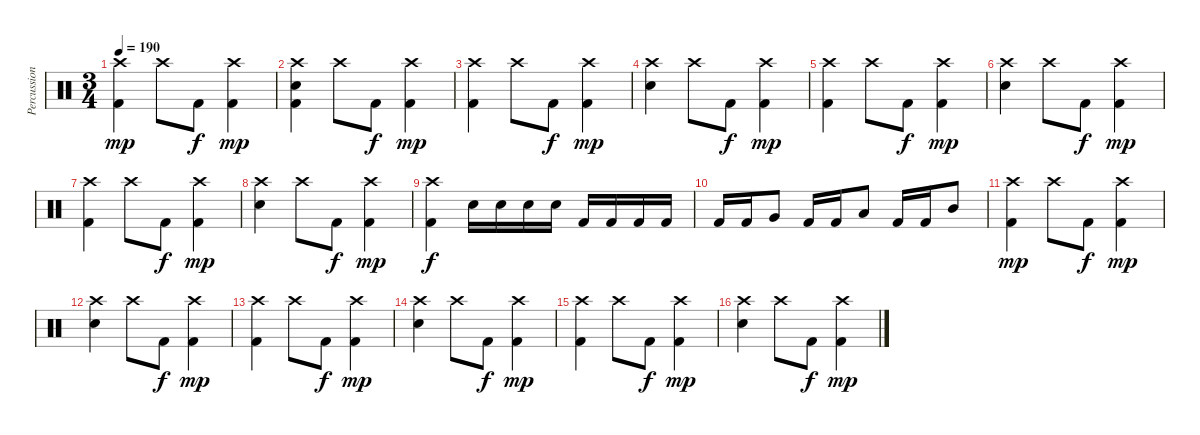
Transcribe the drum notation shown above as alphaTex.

\track ("Percussion" "Percussion") {instrument percussion}
\staff {score}
\articulation defaults
\ts (3 4)
\tempo 190
\clef neutral
\ks c
("Crash high (hit)" "Kick (hit) 2").4{dy mp} "Crash high (hit)".8 "Kick (hit) 2".8{dy f} ("Crash high (hit)" "Kick (hit) 2").4{dy mp} |
("Crash high (hit)" "Electric Snare (hit)" "Kick (hit) 2").4 "Crash high (hit)".8 "Kick (hit) 2".8{dy f} ("Crash high (hit)" "Kick (hit) 2").4{dy mp} |
("Crash high (hit)" "Kick (hit) 2").4 "Crash high (hit)".8 "Kick (hit) 2".8{dy f} ("Crash high (hit)" "Kick (hit) 2").4{dy mp} |
("Crash high (hit)" "Electric Snare (hit)").4 "Crash high (hit)".8 "Kick (hit) 2".8{dy f} ("Crash high (hit)" "Kick (hit) 2").4{dy mp} |
("Crash high (hit)" "Kick (hit) 2").4 "Crash high (hit)".8 "Kick (hit) 2".8{dy f} ("Crash high (hit)" "Kick (hit) 2").4{dy mp} |
("Crash high (hit)" "Electric Snare (hit)").4 "Crash high (hit)".8 "Kick (hit) 2".8{dy f} ("Crash high (hit)" "Kick (hit) 2").4{dy mp} |
("Crash high (hit)" "Kick (hit) 2").4 "Crash high (hit)".8 "Kick (hit) 2".8{dy f} ("Crash high (hit)" "Kick (hit) 2").4{dy mp} |
("Crash high (hit)" "Electric Snare (hit)").4 "Crash high (hit)".8 "Kick (hit) 2".8{dy f} ("Crash high (hit)" "Kick (hit) 2").4{dy mp} |
("Crash high (hit)" "Kick (hit) 2").4{dy f} "Electric Snare (hit)".16 "Electric Snare (hit)".16 "Electric Snare (hit)".16 "Electric Snare (hit)".16 "Kick (hit) 2".16 "Kick (hit) 2".16 "Kick (hit) 2".16 "Kick (hit) 2".16 |
"Kick (hit) 2".16 "Kick (hit) 2".16 "Very Low Tom (hit)".8 "Kick (hit) 2".16 "Kick (hit) 2".16 "Low Tom (hit)".8 "Kick (hit) 2".16 "Kick (hit) 2".16 "Mid Tom (hit)".8 |
("Crash high (hit)" "Kick (hit) 2").4{dy mp} "Crash high (hit)".8 "Kick (hit) 2".8{dy f} ("Crash high (hit)" "Kick (hit) 2").4{dy mp} |
("Crash high (hit)" "Electric Snare (hit)").4 "Crash high (hit)".8 "Kick (hit) 2".8{dy f} ("Crash high (hit)" "Kick (hit) 2").4{dy mp} |
("Crash high (hit)" "Kick (hit) 2").4 "Crash high (hit)".8 "Kick (hit) 2".8{dy f} ("Crash high (hit)" "Kick (hit) 2").4{dy mp} |
("Crash high (hit)" "Electric Snare (hit)").4 "Crash high (hit)".8 "Kick (hit) 2".8{dy f} ("Crash high (hit)" "Kick (hit) 2").4{dy mp} |
("Crash high (hit)" "Kick (hit) 2").4 "Crash high (hit)".8 "Kick (hit) 2".8{dy f} ("Crash high (hit)" "Kick (hit) 2").4{dy mp} |
("Crash high (hit)" "Electric Snare (hit)").4 "Crash high (hit)".8 "Kick (hit) 2".8{dy f} ("Crash high (hit)" "Kick (hit) 2").4{dy mp}
